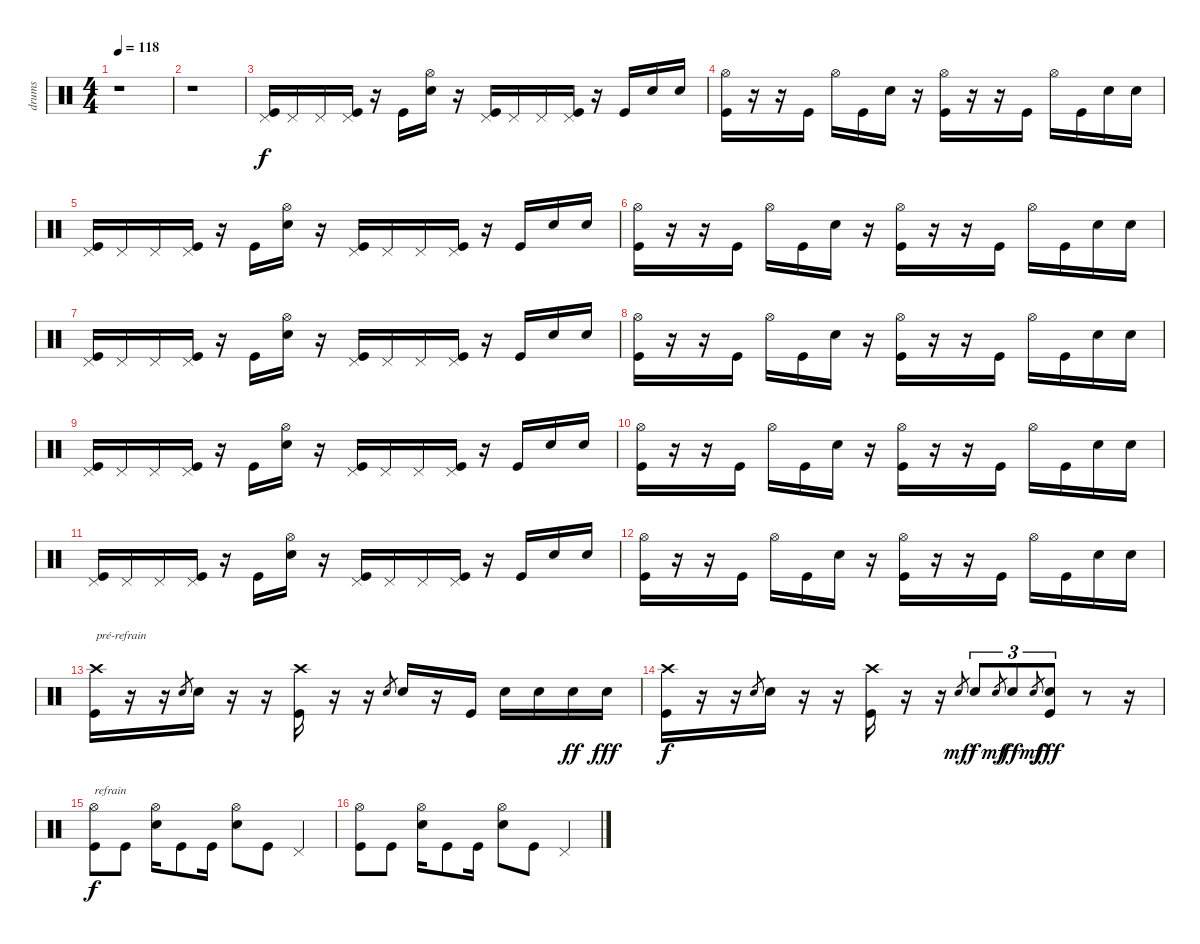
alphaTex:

\track ("drums" "drums") {instrument percussion}
\staff {score}
\articulation defaults
\ts (4 4)
\tempo 118
\clef neutral
\ks c
r.1{dy f} |
r.1 |
("Pedal Hi-Hat (hit)" "Kick (hit)").16 "Pedal Hi-Hat (hit)".16 "Pedal Hi-Hat (hit)".16 ("Pedal Hi-Hat (hit)" "Kick (hit)").16 r.16 "Kick (hit)".16 ("Hi-Hat (open)" "Electric Snare (hit)").16 r.16 ("Pedal Hi-Hat (hit)" "Kick (hit)").16 "Pedal Hi-Hat (hit)".16 "Pedal Hi-Hat (hit)".16 ("Pedal Hi-Hat (hit)" "Kick (hit)").16 r.16 "Kick (hit)".16 "Electric Snare (hit)".16 "Electric Snare (hit)".16 |
("Hi-Hat (open)" "Kick (hit)").16 r.16 r.16 "Kick (hit)".16 "Hi-Hat (open)".16 "Kick (hit)".16 "Electric Snare (hit)".16 r.16 ("Hi-Hat (open)" "Kick (hit)").16 r.16 r.16 "Kick (hit)".16 "Hi-Hat (open)".16 "Kick (hit)".16 "Electric Snare (hit)".16 "Electric Snare (hit)".16 |
("Pedal Hi-Hat (hit)" "Kick (hit)").16 "Pedal Hi-Hat (hit)".16 "Pedal Hi-Hat (hit)".16 ("Pedal Hi-Hat (hit)" "Kick (hit)").16 r.16 "Kick (hit)".16 ("Hi-Hat (open)" "Electric Snare (hit)").16 r.16 ("Pedal Hi-Hat (hit)" "Kick (hit)").16 "Pedal Hi-Hat (hit)".16 "Pedal Hi-Hat (hit)".16 ("Pedal Hi-Hat (hit)" "Kick (hit)").16 r.16 "Kick (hit)".16 "Electric Snare (hit)".16 "Electric Snare (hit)".16 |
("Hi-Hat (open)" "Kick (hit)").16 r.16 r.16 "Kick (hit)".16 "Hi-Hat (open)".16 "Kick (hit)".16 "Electric Snare (hit)".16 r.16 ("Hi-Hat (open)" "Kick (hit)").16 r.16 r.16 "Kick (hit)".16 "Hi-Hat (open)".16 "Kick (hit)".16 "Electric Snare (hit)".16 "Electric Snare (hit)".16 |
("Pedal Hi-Hat (hit)" "Kick (hit)").16 "Pedal Hi-Hat (hit)".16 "Pedal Hi-Hat (hit)".16 ("Pedal Hi-Hat (hit)" "Kick (hit)").16 r.16 "Kick (hit)".16 ("Hi-Hat (open)" "Electric Snare (hit)").16 r.16 ("Pedal Hi-Hat (hit)" "Kick (hit)").16 "Pedal Hi-Hat (hit)".16 "Pedal Hi-Hat (hit)".16 ("Pedal Hi-Hat (hit)" "Kick (hit)").16 r.16 "Kick (hit)".16 "Electric Snare (hit)".16 "Electric Snare (hit)".16 |
("Hi-Hat (open)" "Kick (hit)").16 r.16 r.16 "Kick (hit)".16 "Hi-Hat (open)".16 "Kick (hit)".16 "Electric Snare (hit)".16 r.16 ("Hi-Hat (open)" "Kick (hit)").16 r.16 r.16 "Kick (hit)".16 "Hi-Hat (open)".16 "Kick (hit)".16 "Electric Snare (hit)".16 "Electric Snare (hit)".16 |
("Pedal Hi-Hat (hit)" "Kick (hit)").16 "Pedal Hi-Hat (hit)".16 "Pedal Hi-Hat (hit)".16 ("Pedal Hi-Hat (hit)" "Kick (hit)").16 r.16 "Kick (hit)".16 ("Hi-Hat (open)" "Electric Snare (hit)").16 r.16 ("Pedal Hi-Hat (hit)" "Kick (hit)").16 "Pedal Hi-Hat (hit)".16 "Pedal Hi-Hat (hit)".16 ("Pedal Hi-Hat (hit)" "Kick (hit)").16 r.16 "Kick (hit)".16 "Electric Snare (hit)".16 "Electric Snare (hit)".16 |
("Hi-Hat (open)" "Kick (hit)").16 r.16 r.16 "Kick (hit)".16 "Hi-Hat (open)".16 "Kick (hit)".16 "Electric Snare (hit)".16 r.16 ("Hi-Hat (open)" "Kick (hit)").16 r.16 r.16 "Kick (hit)".16 "Hi-Hat (open)".16 "Kick (hit)".16 "Electric Snare (hit)".16 "Electric Snare (hit)".16 |
("Pedal Hi-Hat (hit)" "Kick (hit)").16 "Pedal Hi-Hat (hit)".16 "Pedal Hi-Hat (hit)".16 ("Pedal Hi-Hat (hit)" "Kick (hit)").16 r.16 "Kick (hit)".16 ("Hi-Hat (open)" "Electric Snare (hit)").16 r.16 ("Pedal Hi-Hat (hit)" "Kick (hit)").16 "Pedal Hi-Hat (hit)".16 "Pedal Hi-Hat (hit)".16 ("Pedal Hi-Hat (hit)" "Kick (hit)").16 r.16 "Kick (hit)".16 "Electric Snare (hit)".16 "Electric Snare (hit)".16 |
("Hi-Hat (open)" "Kick (hit)").16 r.16 r.16 "Kick (hit)".16 "Hi-Hat (open)".16 "Kick (hit)".16 "Electric Snare (hit)".16 r.16 ("Hi-Hat (open)" "Kick (hit)").16 r.16 r.16 "Kick (hit)".16 "Hi-Hat (open)".16 "Kick (hit)".16 "Electric Snare (hit)".16 "Electric Snare (hit)".16 |
("Crash high (hit)" "Kick (hit)").16{txt "pré-refrain"} r.16 r.16 "Electric Snare (hit)".8{gr} "Electric Snare (hit)".16 r.16 r.16 ("Crash high (hit)" "Kick (hit)").16 r.16 r.16 "Electric Snare (hit)".8{gr} "Electric Snare (hit)".16 r.16 "Kick (hit)".16 "Electric Snare (hit)".16 "Electric Snare (hit)".16 "Electric Snare (hit)".16{dy ff} "Electric Snare (hit)".16{dy fff} |
("Crash high (hit)" "Kick (hit)").16{dy f} r.16 r.16 "Electric Snare (hit)".8{gr} "Electric Snare (hit)".16 r.16 r.16 ("Crash high (hit)" "Kick (hit)").16 r.16 r.16 "Electric Snare (hit)".8{gr dy mf} "Electric Snare (hit)".8{tu (3 2) dy f} "Electric Snare (hit)".8{gr dy mf} "Electric Snare (hit)".8{tu (3 2) dy ff} "Electric Snare (hit)".8{gr dy mf} ("Electric Snare (hit)" "Kick (hit)").8{tu (3 2) dy fff} r.8 r.16 |
("Hi-Hat (open)" "Kick (hit)").8{txt "refrain" dy f} "Kick (hit)".8 ("Hi-Hat (open)" "Electric Snare (hit)").16 "Kick (hit)".8 "Kick (hit)".16 ("Hi-Hat (open)" "Electric Snare (hit)").8 "Kick (hit)".8 "Pedal Hi-Hat (hit)".4 |
("Hi-Hat (open)" "Kick (hit)").8 "Kick (hit)".8 ("Hi-Hat (open)" "Electric Snare (hit)").16 "Kick (hit)".8 "Kick (hit)".16 ("Hi-Hat (open)" "Electric Snare (hit)").8 "Kick (hit)".8 "Pedal Hi-Hat (hit)".4
